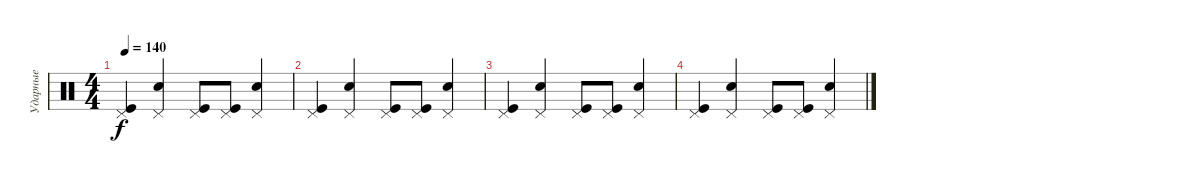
\track ("Ударные" "Ударные") {instrument percussion}
\staff {score}
\articulation defaults
\ts (4 4)
\tempo 140
\clef neutral
\ks c
("Kick (hit)" "Pedal Hi-Hat (hit)").4{dy f} ("Electric Snare (hit)" "Pedal Hi-Hat (hit)").4 ("Kick (hit)" "Pedal Hi-Hat (hit)").8 ("Kick (hit)" "Pedal Hi-Hat (hit)").8 ("Electric Snare (hit)" "Pedal Hi-Hat (hit)").4 |
("Kick (hit)" "Pedal Hi-Hat (hit)").4 ("Electric Snare (hit)" "Pedal Hi-Hat (hit)").4 ("Kick (hit)" "Pedal Hi-Hat (hit)").8 ("Kick (hit)" "Pedal Hi-Hat (hit)").8 ("Electric Snare (hit)" "Pedal Hi-Hat (hit)").4 |
("Kick (hit)" "Pedal Hi-Hat (hit)").4 ("Electric Snare (hit)" "Pedal Hi-Hat (hit)").4 ("Kick (hit)" "Pedal Hi-Hat (hit)").8 ("Kick (hit)" "Pedal Hi-Hat (hit)").8 ("Electric Snare (hit)" "Pedal Hi-Hat (hit)").4 |
("Kick (hit)" "Pedal Hi-Hat (hit)").4 ("Electric Snare (hit)" "Pedal Hi-Hat (hit)").4 ("Kick (hit)" "Pedal Hi-Hat (hit)").8 ("Kick (hit)" "Pedal Hi-Hat (hit)").8 ("Electric Snare (hit)" "Pedal Hi-Hat (hit)").4
